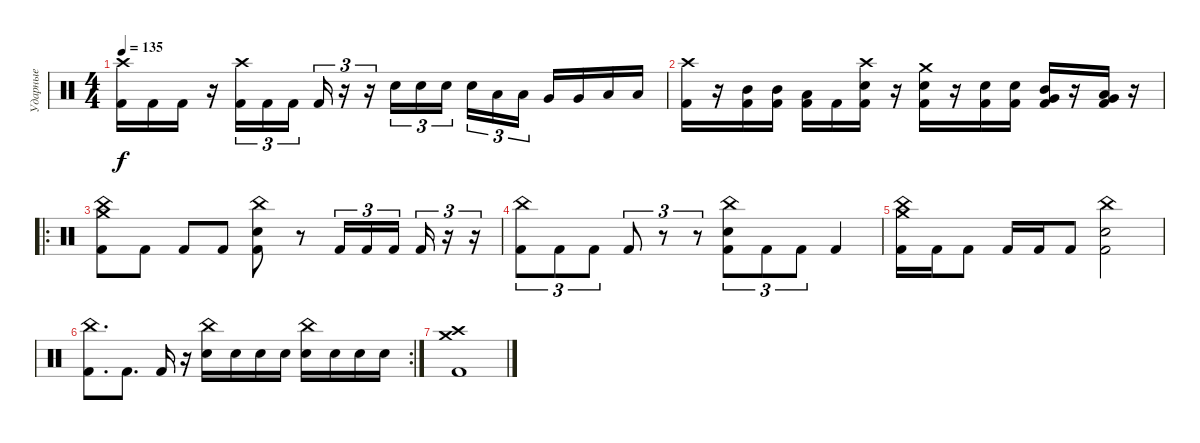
\track ("Ударные" "Ударные") {instrument percussion}
\staff {score}
\articulation defaults
\ts (4 4)
\tempo 135
\clef neutral
\ks c
("Crash high (hit)" "Kick (hit) 2").16{dy f} "Kick (hit) 2".16 "Kick (hit) 2".16 r.16 ("Crash high (hit)" "Kick (hit) 2").16{tu (3 2)} "Kick (hit) 2".16{tu (3 2)} "Kick (hit) 2".16{tu (3 2) beam splitsecondary} "Kick (hit) 2".16{tu (3 2)} r.16{tu (3 2)} r.16{tu (3 2)} "Snare (hit) 2".16{tu (3 2)} "Snare (hit) 2".16{tu (3 2)} "Snare (hit) 2".16{tu (3 2) beam splitsecondary} "Snare (hit) 2".16{tu (3 2)} "Low Floor Tom (hit)".16{tu (3 2)} "Low Floor Tom (hit)".16{tu (3 2)} "Very Low Tom (hit)".16 "Very Low Tom (hit)".16 "Low Tom (hit)".16 "Low Tom (hit)".16 |
("Crash high (hit)" "Kick (hit) 2").16 r.16 ("Mid Tom (hit)" "Kick (hit) 2").16 ("Mid Tom (hit)" "Kick (hit) 2").16 ("Low Tom (hit)" "Kick (hit) 2").16 "Kick (hit) 2".16 ("Crash high (hit)" "Electric Snare (hit)" "Kick (hit) 2").16 r.16 ("Crash medium (hit)" "Electric Snare (hit)" "Kick (hit) 2").16 r.16 ("Electric Snare (hit)" "Kick (hit) 2").16 ("Electric Snare (hit)" "Kick (hit) 2").16 ("Very Low Tom (hit)" "Mid Tom (hit)" "Kick (hit) 2").16 r.16 ("Very Low Tom (hit)" "Low Tom (hit)" "Kick (hit) 2").16 r.16 |
\ro
("China (hit)" "Crash medium (hit)" "Kick (hit) 2").8 "Kick (hit) 2".8 "Kick (hit) 2".8 "Kick (hit) 2".8 ("China (hit)" "Snare (hit) 2" "Kick (hit) 2").8 r.8 "Kick (hit) 2".16{tu (3 2)} "Kick (hit) 2".16{tu (3 2)} "Kick (hit) 2".16{tu (3 2) beam splitsecondary} "Kick (hit) 2".16{tu (3 2)} r.16{tu (3 2)} r.16{tu (3 2)} |
("China (hit)" "Kick (hit) 2").8{tu (3 2)} "Kick (hit) 2".8{tu (3 2)} "Kick (hit) 2".8{tu (3 2)} "Kick (hit) 2".8{tu (3 2)} r.8{tu (3 2)} r.8{tu (3 2)} ("China (hit)" "Snare (hit) 2" "Kick (hit) 2").8{tu (3 2)} "Kick (hit) 2".8{tu (3 2)} "Kick (hit) 2".8{tu (3 2)} "Kick (hit) 2".4 |
("China (hit)" "Crash medium (hit)" "Kick (hit) 2").16 "Kick (hit) 2".16 "Kick (hit) 2".8 "Kick (hit) 2".16 "Kick (hit) 2".16 "Kick (hit) 2".8 ("China (hit)" "Snare (hit) 2" "Kick (hit) 2").2 |
\rc 2
("China (hit)" "Kick (hit) 2").8{d} "Kick (hit) 2".8{d} "Kick (hit) 2".16 r.16 ("China (hit)" "Snare (hit) 2").16 "Snare (hit) 2".16 "Snare (hit) 2".16 "Snare (hit) 2".16 ("China (hit)" "Snare (hit) 2").16 "Snare (hit) 2".16 "Snare (hit) 2".16 "Snare (hit) 2".16 |
("Crash high (hit)" "Crash medium (hit)" "Kick (hit) 2").1
